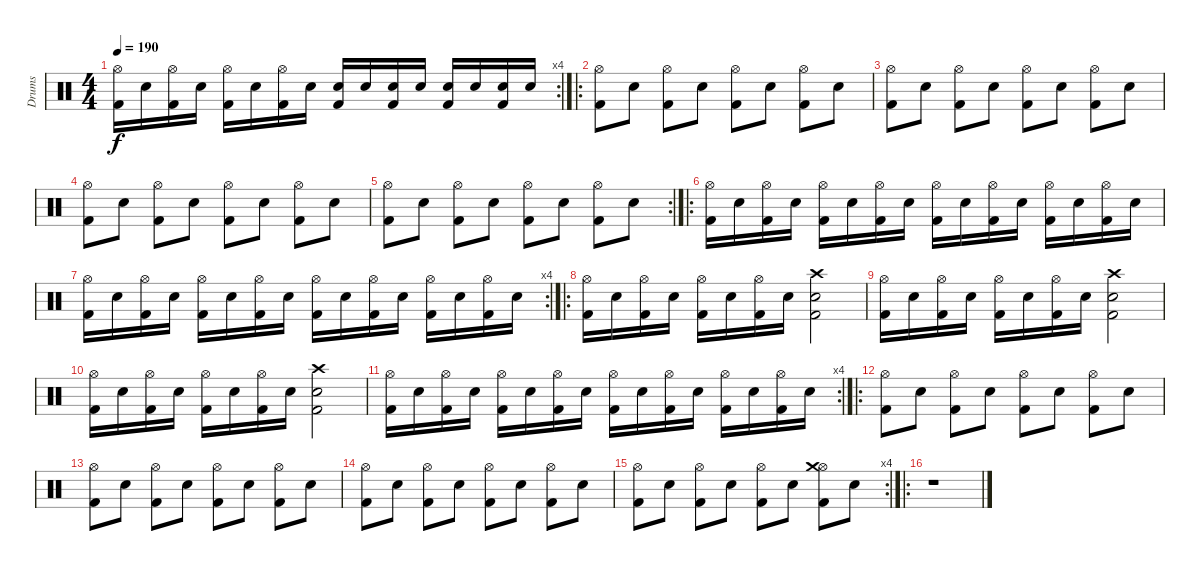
\track ("Drums" "Drums") {instrument percussion}
\staff {score}
\articulation defaults
\rc 4
\ts (4 4)
\tempo 190
\clef neutral
\ks c
("Hi-Hat (open)" "Kick (hit) 2").16{dy f} "Electric Snare (hit)".16 ("Hi-Hat (open)" "Kick (hit) 2").16 "Electric Snare (hit)".16 ("Hi-Hat (open)" "Kick (hit) 2").16 "Electric Snare (hit)".16 ("Hi-Hat (open)" "Kick (hit) 2").16 "Electric Snare (hit)".16 ("Electric Snare (hit)" "Kick (hit) 2").16 "Electric Snare (hit)".16 ("Electric Snare (hit)" "Kick (hit) 2").16 "Electric Snare (hit)".16 ("Electric Snare (hit)" "Kick (hit) 2").16 "Electric Snare (hit)".16 ("Electric Snare (hit)" "Kick (hit) 2").16 "Electric Snare (hit)".16 |
\ro
("Hi-Hat (open)" "Kick (hit) 2").8 "Electric Snare (hit)".8 ("Hi-Hat (open)" "Kick (hit) 2").8 "Electric Snare (hit)".8 ("Hi-Hat (open)" "Kick (hit) 2").8 "Electric Snare (hit)".8 ("Hi-Hat (open)" "Kick (hit) 2").8 "Electric Snare (hit)".8 |
("Hi-Hat (open)" "Kick (hit) 2").8 "Electric Snare (hit)".8 ("Hi-Hat (open)" "Kick (hit) 2").8 "Electric Snare (hit)".8 ("Hi-Hat (open)" "Kick (hit) 2").8 "Electric Snare (hit)".8 ("Hi-Hat (open)" "Kick (hit) 2").8 "Electric Snare (hit)".8 |
("Hi-Hat (open)" "Kick (hit) 2").8 "Electric Snare (hit)".8 ("Hi-Hat (open)" "Kick (hit) 2").8 "Electric Snare (hit)".8 ("Hi-Hat (open)" "Kick (hit) 2").8 "Electric Snare (hit)".8 ("Hi-Hat (open)" "Kick (hit) 2").8 "Electric Snare (hit)".8 |
\rc 2
("Hi-Hat (open)" "Kick (hit) 2").8 "Electric Snare (hit)".8 ("Hi-Hat (open)" "Kick (hit) 2").8 "Electric Snare (hit)".8 ("Hi-Hat (open)" "Kick (hit) 2").8 "Electric Snare (hit)".8 ("Hi-Hat (open)" "Kick (hit) 2").8 "Electric Snare (hit)".8 |
\ro
("Hi-Hat (open)" "Kick (hit) 2").16 "Electric Snare (hit)".16 ("Hi-Hat (open)" "Kick (hit) 2").16 "Electric Snare (hit)".16 ("Hi-Hat (open)" "Kick (hit) 2").16 "Electric Snare (hit)".16 ("Hi-Hat (open)" "Kick (hit) 2").16 "Electric Snare (hit)".16 ("Hi-Hat (open)" "Kick (hit) 2").16 "Electric Snare (hit)".16 ("Hi-Hat (open)" "Kick (hit) 2").16 "Electric Snare (hit)".16 ("Hi-Hat (open)" "Kick (hit) 2").16 "Electric Snare (hit)".16 ("Hi-Hat (open)" "Kick (hit) 2").16 "Electric Snare (hit)".16 |
\rc 4
("Hi-Hat (open)" "Kick (hit) 2").16 "Electric Snare (hit)".16 ("Hi-Hat (open)" "Kick (hit) 2").16 "Electric Snare (hit)".16 ("Hi-Hat (open)" "Kick (hit) 2").16 "Electric Snare (hit)".16 ("Hi-Hat (open)" "Kick (hit) 2").16 "Electric Snare (hit)".16 ("Hi-Hat (open)" "Kick (hit) 2").16 "Electric Snare (hit)".16 ("Hi-Hat (open)" "Kick (hit) 2").16 "Electric Snare (hit)".16 ("Hi-Hat (open)" "Kick (hit) 2").16 "Electric Snare (hit)".16 ("Hi-Hat (open)" "Kick (hit) 2").16 "Electric Snare (hit)".16 |
\ro
("Hi-Hat (open)" "Kick (hit) 2").16 "Electric Snare (hit)".16 ("Hi-Hat (open)" "Kick (hit) 2").16 "Electric Snare (hit)".16 ("Hi-Hat (open)" "Kick (hit) 2").16 "Electric Snare (hit)".16 ("Hi-Hat (open)" "Kick (hit) 2").16 "Electric Snare (hit)".16 ("Crash high (hit)" "Electric Snare (hit)" "Kick (hit) 2").2 |
("Hi-Hat (open)" "Kick (hit) 2").16 "Electric Snare (hit)".16 ("Hi-Hat (open)" "Kick (hit) 2").16 "Electric Snare (hit)".16 ("Hi-Hat (open)" "Kick (hit) 2").16 "Electric Snare (hit)".16 ("Hi-Hat (open)" "Kick (hit) 2").16 "Electric Snare (hit)".16 ("Crash high (hit)" "Electric Snare (hit)" "Kick (hit) 2").2 |
("Hi-Hat (open)" "Kick (hit) 2").16 "Electric Snare (hit)".16 ("Hi-Hat (open)" "Kick (hit) 2").16 "Electric Snare (hit)".16 ("Hi-Hat (open)" "Kick (hit) 2").16 "Electric Snare (hit)".16 ("Hi-Hat (open)" "Kick (hit) 2").16 "Electric Snare (hit)".16 ("Crash high (hit)" "Electric Snare (hit)" "Kick (hit) 2").2 |
\rc 4
("Hi-Hat (open)" "Kick (hit) 2").16 "Electric Snare (hit)".16 ("Hi-Hat (open)" "Kick (hit) 2").16 "Electric Snare (hit)".16 ("Hi-Hat (open)" "Kick (hit) 2").16 "Electric Snare (hit)".16 ("Hi-Hat (open)" "Kick (hit) 2").16 "Electric Snare (hit)".16 ("Hi-Hat (open)" "Kick (hit) 2").16 "Electric Snare (hit)".16 ("Hi-Hat (open)" "Kick (hit) 2").16 "Electric Snare (hit)".16 ("Hi-Hat (open)" "Kick (hit) 2").16 "Electric Snare (hit)".16 ("Hi-Hat (open)" "Kick (hit) 2").16 "Electric Snare (hit)".16 |
\ro
("Hi-Hat (open)" "Kick (hit) 2").8 "Electric Snare (hit)".8 ("Hi-Hat (open)" "Kick (hit) 2").8 "Electric Snare (hit)".8 ("Hi-Hat (open)" "Kick (hit) 2").8 "Electric Snare (hit)".8 ("Hi-Hat (open)" "Kick (hit) 2").8 "Electric Snare (hit)".8 |
("Hi-Hat (open)" "Kick (hit) 2").8 "Electric Snare (hit)".8 ("Hi-Hat (open)" "Kick (hit) 2").8 "Electric Snare (hit)".8 ("Hi-Hat (open)" "Kick (hit) 2").8 "Electric Snare (hit)".8 ("Hi-Hat (open)" "Kick (hit) 2").8 "Electric Snare (hit)".8 |
("Hi-Hat (open)" "Kick (hit) 2").8 "Electric Snare (hit)".8 ("Hi-Hat (open)" "Kick (hit) 2").8 "Electric Snare (hit)".8 ("Hi-Hat (open)" "Kick (hit) 2").8 "Electric Snare (hit)".8 ("Hi-Hat (open)" "Kick (hit) 2").8 "Electric Snare (hit)".8 |
\rc 4
("Hi-Hat (open)" "Kick (hit) 2").8 "Electric Snare (hit)".8 ("Hi-Hat (open)" "Kick (hit) 2").8 "Electric Snare (hit)".8 ("Hi-Hat (open)" "Kick (hit) 2").8 "Electric Snare (hit)".8 ("Hi-Hat (open)" "Crash medium (hit)" "Kick (hit) 2").8 "Electric Snare (hit)".8 |
\ro
r.1
